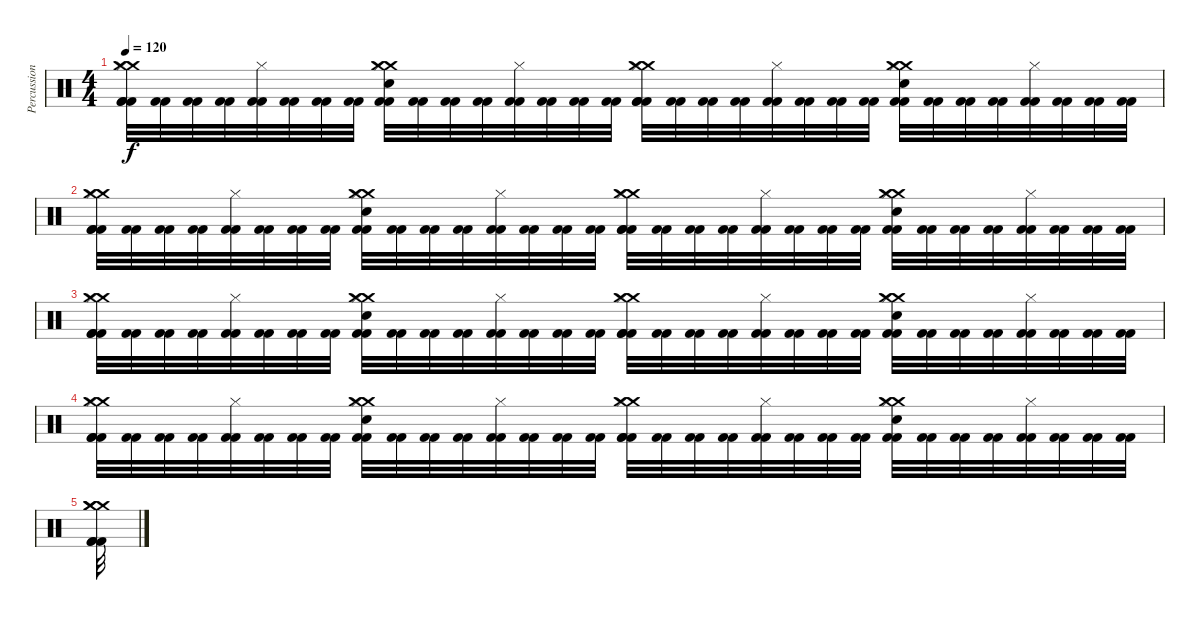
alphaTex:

\track ("Percussion" "Percussion") {instrument percussion}
\staff {score}
\articulation defaults
\ts (4 4)
\tempo 120
\clef neutral
\ks c
("Crash medium (hit)" "Hi-Hat (closed)" "Crash medium (hit)" "Kick (hit) 2" "Kick (hit) 2" "Kick (hit) 2").32{dy f} ("Kick (hit) 2" "Kick (hit) 2").32 ("Kick (hit) 2" "Kick (hit) 2").32 ("Kick (hit) 2" "Kick (hit) 2").32 ("Hi-Hat (closed)" "Kick (hit) 2" "Kick (hit) 2").32 ("Kick (hit) 2" "Kick (hit) 2").32 ("Kick (hit) 2" "Kick (hit) 2").32 ("Kick (hit) 2" "Kick (hit) 2").32 ("Crash medium (hit)" "Hi-Hat (closed)" "Electric Snare (hit)" "Crash medium (hit)" "Kick (hit) 2" "Kick (hit) 2").32 ("Kick (hit) 2" "Kick (hit) 2").32 ("Kick (hit) 2" "Kick (hit) 2").32 ("Kick (hit) 2" "Kick (hit) 2").32 ("Hi-Hat (closed)" "Kick (hit) 2" "Kick (hit) 2").32 ("Kick (hit) 2" "Kick (hit) 2").32 ("Kick (hit) 2" "Kick (hit) 2").32 ("Kick (hit) 2" "Kick (hit) 2").32 ("Crash medium (hit)" "Hi-Hat (closed)" "Crash medium (hit)" "Kick (hit) 2" "Kick (hit) 2" "Kick (hit) 2").32 ("Kick (hit) 2" "Kick (hit) 2").32 ("Kick (hit) 2" "Kick (hit) 2").32 ("Kick (hit) 2" "Kick (hit) 2").32 ("Hi-Hat (closed)" "Kick (hit) 2" "Kick (hit) 2").32 ("Kick (hit) 2" "Kick (hit) 2").32 ("Kick (hit) 2" "Kick (hit) 2").32 ("Kick (hit) 2" "Kick (hit) 2").32 ("Crash medium (hit)" "Hi-Hat (closed)" "Electric Snare (hit)" "Crash medium (hit)" "Kick (hit) 2" "Kick (hit) 2").32 ("Kick (hit) 2" "Kick (hit) 2").32 ("Kick (hit) 2" "Kick (hit) 2").32 ("Kick (hit) 2" "Kick (hit) 2").32 ("Hi-Hat (closed)" "Kick (hit) 2" "Kick (hit) 2").32 ("Kick (hit) 2" "Kick (hit) 2").32 ("Kick (hit) 2" "Kick (hit) 2").32 ("Kick (hit) 2" "Kick (hit) 2").32 |
("Crash medium (hit)" "Hi-Hat (closed)" "Crash medium (hit)" "Kick (hit) 2" "Kick (hit) 2" "Kick (hit) 2").32 ("Kick (hit) 2" "Kick (hit) 2").32 ("Kick (hit) 2" "Kick (hit) 2").32 ("Kick (hit) 2" "Kick (hit) 2").32 ("Hi-Hat (closed)" "Kick (hit) 2" "Kick (hit) 2").32 ("Kick (hit) 2" "Kick (hit) 2").32 ("Kick (hit) 2" "Kick (hit) 2").32 ("Kick (hit) 2" "Kick (hit) 2").32 ("Crash medium (hit)" "Hi-Hat (closed)" "Electric Snare (hit)" "Crash medium (hit)" "Kick (hit) 2" "Kick (hit) 2").32 ("Kick (hit) 2" "Kick (hit) 2").32 ("Kick (hit) 2" "Kick (hit) 2").32 ("Kick (hit) 2" "Kick (hit) 2").32 ("Hi-Hat (closed)" "Kick (hit) 2" "Kick (hit) 2").32 ("Kick (hit) 2" "Kick (hit) 2").32 ("Kick (hit) 2" "Kick (hit) 2").32 ("Kick (hit) 2" "Kick (hit) 2").32 ("Crash medium (hit)" "Hi-Hat (closed)" "Crash medium (hit)" "Kick (hit) 2" "Kick (hit) 2" "Kick (hit) 2").32 ("Kick (hit) 2" "Kick (hit) 2").32 ("Kick (hit) 2" "Kick (hit) 2").32 ("Kick (hit) 2" "Kick (hit) 2").32 ("Hi-Hat (closed)" "Kick (hit) 2" "Kick (hit) 2").32 ("Kick (hit) 2" "Kick (hit) 2").32 ("Kick (hit) 2" "Kick (hit) 2").32 ("Kick (hit) 2" "Kick (hit) 2").32 ("Crash medium (hit)" "Hi-Hat (closed)" "Electric Snare (hit)" "Crash medium (hit)" "Kick (hit) 2" "Kick (hit) 2").32 ("Kick (hit) 2" "Kick (hit) 2").32 ("Kick (hit) 2" "Kick (hit) 2").32 ("Kick (hit) 2" "Kick (hit) 2").32 ("Hi-Hat (closed)" "Kick (hit) 2" "Kick (hit) 2").32 ("Kick (hit) 2" "Kick (hit) 2").32 ("Kick (hit) 2" "Kick (hit) 2").32 ("Kick (hit) 2" "Kick (hit) 2").32 |
("Crash medium (hit)" "Hi-Hat (closed)" "Crash medium (hit)" "Kick (hit) 2" "Kick (hit) 2" "Kick (hit) 2").32 ("Kick (hit) 2" "Kick (hit) 2").32 ("Kick (hit) 2" "Kick (hit) 2").32 ("Kick (hit) 2" "Kick (hit) 2").32 ("Hi-Hat (closed)" "Kick (hit) 2" "Kick (hit) 2").32 ("Kick (hit) 2" "Kick (hit) 2").32 ("Kick (hit) 2" "Kick (hit) 2").32 ("Kick (hit) 2" "Kick (hit) 2").32 ("Crash medium (hit)" "Hi-Hat (closed)" "Electric Snare (hit)" "Crash medium (hit)" "Kick (hit) 2" "Kick (hit) 2").32 ("Kick (hit) 2" "Kick (hit) 2").32 ("Kick (hit) 2" "Kick (hit) 2").32 ("Kick (hit) 2" "Kick (hit) 2").32 ("Hi-Hat (closed)" "Kick (hit) 2" "Kick (hit) 2").32 ("Kick (hit) 2" "Kick (hit) 2").32 ("Kick (hit) 2" "Kick (hit) 2").32 ("Kick (hit) 2" "Kick (hit) 2").32 ("Crash medium (hit)" "Hi-Hat (closed)" "Crash medium (hit)" "Kick (hit) 2" "Kick (hit) 2" "Kick (hit) 2").32 ("Kick (hit) 2" "Kick (hit) 2").32 ("Kick (hit) 2" "Kick (hit) 2").32 ("Kick (hit) 2" "Kick (hit) 2").32 ("Hi-Hat (closed)" "Kick (hit) 2" "Kick (hit) 2").32 ("Kick (hit) 2" "Kick (hit) 2").32 ("Kick (hit) 2" "Kick (hit) 2").32 ("Kick (hit) 2" "Kick (hit) 2").32 ("Crash medium (hit)" "Hi-Hat (closed)" "Electric Snare (hit)" "Crash medium (hit)" "Kick (hit) 2" "Kick (hit) 2").32 ("Kick (hit) 2" "Kick (hit) 2").32 ("Kick (hit) 2" "Kick (hit) 2").32 ("Kick (hit) 2" "Kick (hit) 2").32 ("Hi-Hat (closed)" "Kick (hit) 2" "Kick (hit) 2").32 ("Kick (hit) 2" "Kick (hit) 2").32 ("Kick (hit) 2" "Kick (hit) 2").32 ("Kick (hit) 2" "Kick (hit) 2").32 |
("Crash medium (hit)" "Hi-Hat (closed)" "Crash medium (hit)" "Kick (hit) 2" "Kick (hit) 2" "Kick (hit) 2").32 ("Kick (hit) 2" "Kick (hit) 2").32 ("Kick (hit) 2" "Kick (hit) 2").32 ("Kick (hit) 2" "Kick (hit) 2").32 ("Hi-Hat (closed)" "Kick (hit) 2" "Kick (hit) 2").32 ("Kick (hit) 2" "Kick (hit) 2").32 ("Kick (hit) 2" "Kick (hit) 2").32 ("Kick (hit) 2" "Kick (hit) 2").32 ("Crash medium (hit)" "Hi-Hat (closed)" "Electric Snare (hit)" "Crash medium (hit)" "Kick (hit) 2" "Kick (hit) 2").32 ("Kick (hit) 2" "Kick (hit) 2").32 ("Kick (hit) 2" "Kick (hit) 2").32 ("Kick (hit) 2" "Kick (hit) 2").32 ("Hi-Hat (closed)" "Kick (hit) 2" "Kick (hit) 2").32 ("Kick (hit) 2" "Kick (hit) 2").32 ("Kick (hit) 2" "Kick (hit) 2").32 ("Kick (hit) 2" "Kick (hit) 2").32 ("Crash medium (hit)" "Hi-Hat (closed)" "Crash medium (hit)" "Kick (hit) 2" "Kick (hit) 2" "Kick (hit) 2").32 ("Kick (hit) 2" "Kick (hit) 2").32 ("Kick (hit) 2" "Kick (hit) 2").32 ("Kick (hit) 2" "Kick (hit) 2").32 ("Hi-Hat (closed)" "Kick (hit) 2" "Kick (hit) 2").32 ("Kick (hit) 2" "Kick (hit) 2").32 ("Kick (hit) 2" "Kick (hit) 2").32 ("Kick (hit) 2" "Kick (hit) 2").32 ("Crash medium (hit)" "Hi-Hat (closed)" "Electric Snare (hit)" "Crash medium (hit)" "Kick (hit) 2" "Kick (hit) 2").32 ("Kick (hit) 2" "Kick (hit) 2").32 ("Kick (hit) 2" "Kick (hit) 2").32 ("Kick (hit) 2" "Kick (hit) 2").32 ("Hi-Hat (closed)" "Kick (hit) 2" "Kick (hit) 2").32 ("Kick (hit) 2" "Kick (hit) 2").32 ("Kick (hit) 2" "Kick (hit) 2").32 ("Kick (hit) 2" "Kick (hit) 2").32 |
("Crash medium (hit)" "Crash medium (hit)" "Crash medium (hit)" "Kick (hit) 2" "Kick (hit) 2" "Kick (hit) 2").32
